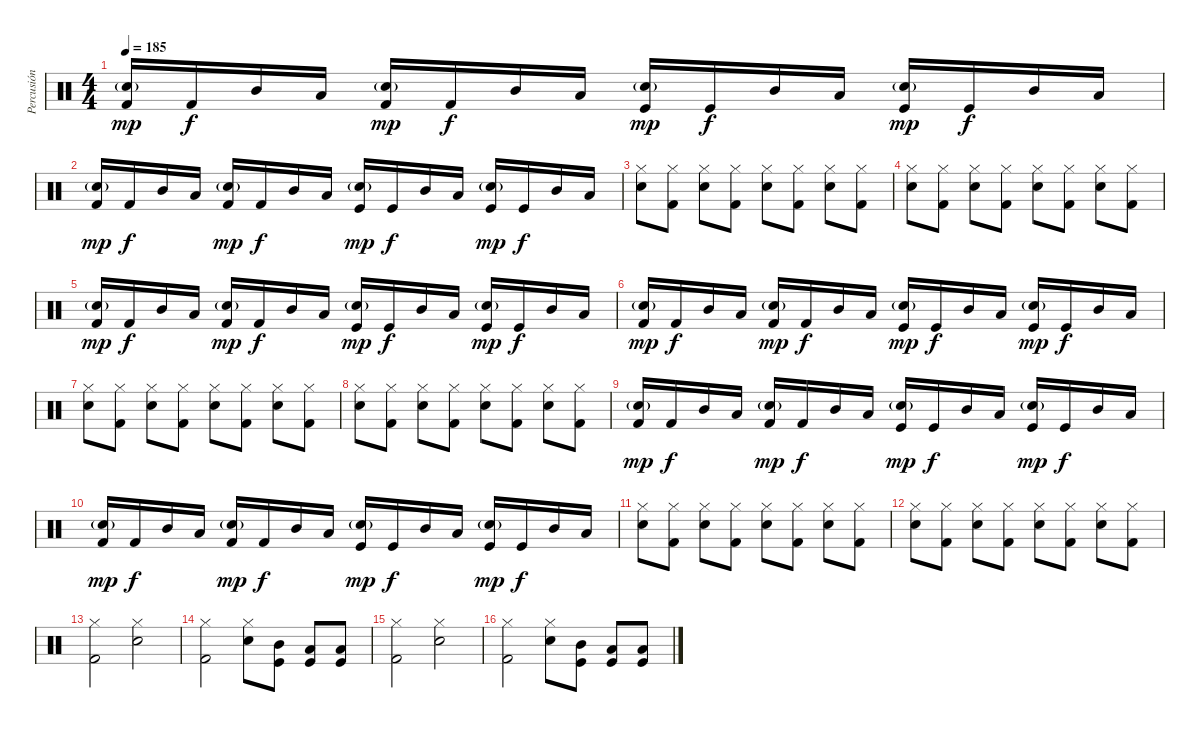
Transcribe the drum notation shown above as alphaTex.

\track ("Percusión" "Percusión") {instrument percussion}
\staff {score}
\articulation defaults
\ts (4 4)
\tempo 185
\clef neutral
\ks c
("Snare (hit) 2"{g} "Kick (hit) 2").16{dy mp} "Kick (hit) 2".16{dy f} "Mid Tom (hit)".16 "Low Tom (hit)".16 ("Snare (hit) 2"{g} "Kick (hit) 2").16{dy mp} "Kick (hit) 2".16{dy f} "Mid Tom (hit)".16 "Low Tom (hit)".16 ("Snare (hit) 2"{g} "Kick (hit)").16{dy mp} "Kick (hit)".16{dy f} "Mid Tom (hit)".16 "Low Tom (hit)".16 ("Snare (hit) 2"{g} "Kick (hit)").16{dy mp} "Kick (hit)".16{dy f} "Mid Tom (hit)".16 "Low Tom (hit)".16 |
("Snare (hit) 2"{g} "Kick (hit) 2").16{dy mp} "Kick (hit) 2".16{dy f} "Mid Tom (hit)".16 "Low Tom (hit)".16 ("Snare (hit) 2"{g} "Kick (hit) 2").16{dy mp} "Kick (hit) 2".16{dy f} "Mid Tom (hit)".16 "Low Tom (hit)".16 ("Snare (hit) 2"{g} "Kick (hit)").16{dy mp} "Kick (hit)".16{dy f} "Mid Tom (hit)".16 "Low Tom (hit)".16 ("Snare (hit) 2"{g} "Kick (hit)").16{dy mp} "Kick (hit)".16{dy f} "Mid Tom (hit)".16 "Low Tom (hit)".16 |
("Hi-Hat (closed)" "Snare (hit) 2").8 ("Hi-Hat (closed)" "Kick (hit) 2").8 ("Hi-Hat (closed)" "Snare (hit) 2").8 ("Hi-Hat (closed)" "Kick (hit) 2").8 ("Hi-Hat (closed)" "Snare (hit) 2").8 ("Hi-Hat (closed)" "Kick (hit) 2").8 ("Hi-Hat (closed)" "Snare (hit) 2").8 ("Hi-Hat (closed)" "Kick (hit) 2").8 |
("Hi-Hat (closed)" "Snare (hit) 2").8 ("Hi-Hat (closed)" "Kick (hit) 2").8 ("Hi-Hat (closed)" "Snare (hit) 2").8 ("Hi-Hat (closed)" "Kick (hit) 2").8 ("Hi-Hat (closed)" "Snare (hit) 2").8 ("Hi-Hat (closed)" "Kick (hit) 2").8 ("Hi-Hat (closed)" "Snare (hit) 2").8 ("Hi-Hat (closed)" "Kick (hit) 2").8 |
("Snare (hit) 2"{g} "Kick (hit) 2").16{dy mp} "Kick (hit) 2".16{dy f} "Mid Tom (hit)".16 "Low Tom (hit)".16 ("Snare (hit) 2"{g} "Kick (hit) 2").16{dy mp} "Kick (hit) 2".16{dy f} "Mid Tom (hit)".16 "Low Tom (hit)".16 ("Snare (hit) 2"{g} "Kick (hit)").16{dy mp} "Kick (hit)".16{dy f} "Mid Tom (hit)".16 "Low Tom (hit)".16 ("Snare (hit) 2"{g} "Kick (hit)").16{dy mp} "Kick (hit)".16{dy f} "Mid Tom (hit)".16 "Low Tom (hit)".16 |
("Snare (hit) 2"{g} "Kick (hit) 2").16{dy mp} "Kick (hit) 2".16{dy f} "Mid Tom (hit)".16 "Low Tom (hit)".16 ("Snare (hit) 2"{g} "Kick (hit) 2").16{dy mp} "Kick (hit) 2".16{dy f} "Mid Tom (hit)".16 "Low Tom (hit)".16 ("Snare (hit) 2"{g} "Kick (hit)").16{dy mp} "Kick (hit)".16{dy f} "Mid Tom (hit)".16 "Low Tom (hit)".16 ("Snare (hit) 2"{g} "Kick (hit)").16{dy mp} "Kick (hit)".16{dy f} "Mid Tom (hit)".16 "Low Tom (hit)".16 |
("Hi-Hat (closed)" "Snare (hit) 2").8 ("Hi-Hat (closed)" "Kick (hit) 2").8 ("Hi-Hat (closed)" "Snare (hit) 2").8 ("Hi-Hat (closed)" "Kick (hit) 2").8 ("Hi-Hat (closed)" "Snare (hit) 2").8 ("Hi-Hat (closed)" "Kick (hit) 2").8 ("Hi-Hat (closed)" "Snare (hit) 2").8 ("Hi-Hat (closed)" "Kick (hit) 2").8 |
("Hi-Hat (closed)" "Snare (hit) 2").8 ("Hi-Hat (closed)" "Kick (hit) 2").8 ("Hi-Hat (closed)" "Snare (hit) 2").8 ("Hi-Hat (closed)" "Kick (hit) 2").8 ("Hi-Hat (closed)" "Snare (hit) 2").8 ("Hi-Hat (closed)" "Kick (hit) 2").8 ("Hi-Hat (closed)" "Snare (hit) 2").8 ("Hi-Hat (closed)" "Kick (hit) 2").8 |
("Snare (hit) 2"{g} "Kick (hit) 2").16{dy mp} "Kick (hit) 2".16{dy f} "Mid Tom (hit)".16 "Low Tom (hit)".16 ("Snare (hit) 2"{g} "Kick (hit) 2").16{dy mp} "Kick (hit) 2".16{dy f} "Mid Tom (hit)".16 "Low Tom (hit)".16 ("Snare (hit) 2"{g} "Kick (hit)").16{dy mp} "Kick (hit)".16{dy f} "Mid Tom (hit)".16 "Low Tom (hit)".16 ("Snare (hit) 2"{g} "Kick (hit)").16{dy mp} "Kick (hit)".16{dy f} "Mid Tom (hit)".16 "Low Tom (hit)".16 |
("Snare (hit) 2"{g} "Kick (hit) 2").16{dy mp} "Kick (hit) 2".16{dy f} "Mid Tom (hit)".16 "Low Tom (hit)".16 ("Snare (hit) 2"{g} "Kick (hit) 2").16{dy mp} "Kick (hit) 2".16{dy f} "Mid Tom (hit)".16 "Low Tom (hit)".16 ("Snare (hit) 2"{g} "Kick (hit)").16{dy mp} "Kick (hit)".16{dy f} "Mid Tom (hit)".16 "Low Tom (hit)".16 ("Snare (hit) 2"{g} "Kick (hit)").16{dy mp} "Kick (hit)".16{dy f} "Mid Tom (hit)".16 "Low Tom (hit)".16 |
("Hi-Hat (closed)" "Snare (hit) 2").8 ("Hi-Hat (closed)" "Kick (hit) 2").8 ("Hi-Hat (closed)" "Snare (hit) 2").8 ("Hi-Hat (closed)" "Kick (hit) 2").8 ("Hi-Hat (closed)" "Snare (hit) 2").8 ("Hi-Hat (closed)" "Kick (hit) 2").8 ("Hi-Hat (closed)" "Snare (hit) 2").8 ("Hi-Hat (closed)" "Kick (hit) 2").8 |
("Hi-Hat (closed)" "Snare (hit) 2").8 ("Hi-Hat (closed)" "Kick (hit) 2").8 ("Hi-Hat (closed)" "Snare (hit) 2").8 ("Hi-Hat (closed)" "Kick (hit) 2").8 ("Hi-Hat (closed)" "Snare (hit) 2").8 ("Hi-Hat (closed)" "Kick (hit) 2").8 ("Hi-Hat (closed)" "Snare (hit) 2").8 ("Hi-Hat (closed)" "Kick (hit) 2").8 |
("Hi-Hat (closed)" "Kick (hit) 2").2 ("Hi-Hat (closed)" "Snare (hit) 2").2 |
("Hi-Hat (closed)" "Kick (hit) 2").2 ("Hi-Hat (closed)" "Snare (hit) 2").8 ("Kick (hit)" "Mid Tom (hit)").8 ("Kick (hit)" "Low Tom (hit)").8 ("Kick (hit)" "Low Tom (hit)").8 |
("Hi-Hat (closed)" "Kick (hit) 2").2 ("Hi-Hat (closed)" "Snare (hit) 2").2 |
("Hi-Hat (closed)" "Kick (hit) 2").2 ("Hi-Hat (closed)" "Snare (hit) 2").8 ("Kick (hit)" "Mid Tom (hit)").8 ("Kick (hit)" "Low Tom (hit)").8 ("Kick (hit)" "Low Tom (hit)").8
